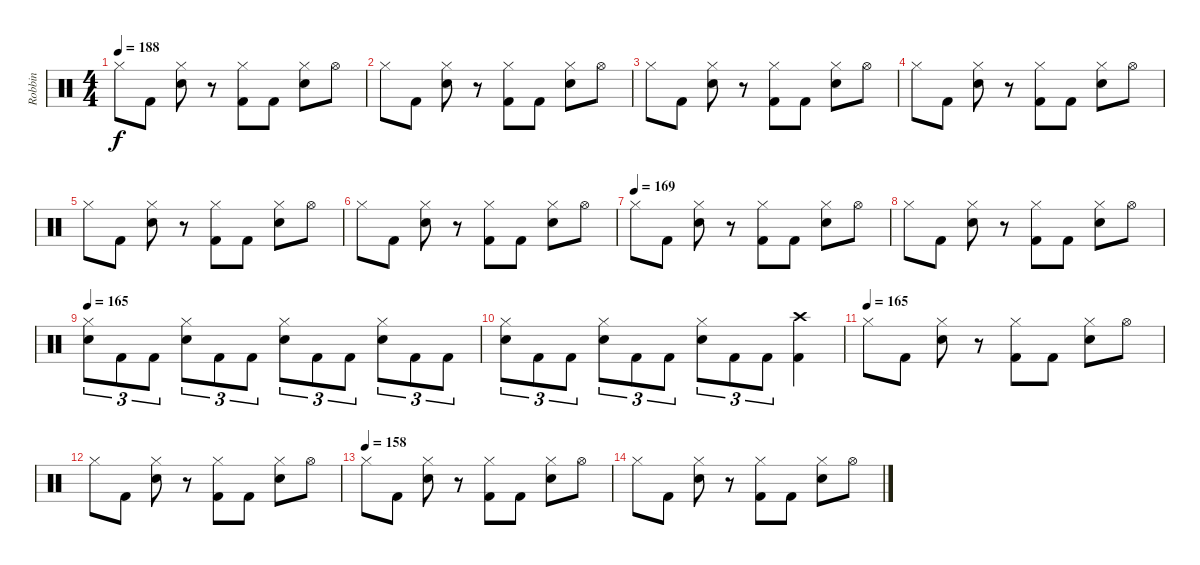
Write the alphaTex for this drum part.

\track ("Robbin" "Robbin") {instrument percussion}
\staff {score}
\articulation defaults
\ts (4 4)
\tempo 188
\clef neutral
\ks c "Hi-Hat (closed)".8{dy f} "Kick (hit) 2".8
("Hi-Hat (closed)" "Snare (hit) 2").8 r.8 ("Hi-Hat (closed)" "Kick (hit) 2").8 "Kick (hit) 2".8 ("Hi-Hat (closed)" "Snare (hit) 2").8 "Hi-Hat (open)".8 |
"Hi-Hat (closed)".8 "Kick (hit) 2".8 ("Hi-Hat (closed)" "Snare (hit) 2").8 r.8 ("Hi-Hat (closed)" "Kick (hit) 2").8 "Kick (hit) 2".8 ("Hi-Hat (closed)" "Snare (hit) 2").8 "Hi-Hat (open)".8 |
"Hi-Hat (closed)".8 "Kick (hit) 2".8 ("Hi-Hat (closed)" "Snare (hit) 2").8 r.8 ("Hi-Hat (closed)" "Kick (hit) 2").8 "Kick (hit) 2".8 ("Hi-Hat (closed)" "Snare (hit) 2").8 "Hi-Hat (open)".8 |
"Hi-Hat (closed)".8 "Kick (hit) 2".8 ("Hi-Hat (closed)" "Snare (hit) 2").8 r.8 ("Hi-Hat (closed)" "Kick (hit) 2").8 "Kick (hit) 2".8 ("Hi-Hat (closed)" "Snare (hit) 2").8 "Hi-Hat (open)".8 |
"Hi-Hat (closed)".8 "Kick (hit) 2".8 ("Hi-Hat (closed)" "Snare (hit) 2").8 r.8 ("Hi-Hat (closed)" "Kick (hit) 2").8 "Kick (hit) 2".8 ("Hi-Hat (closed)" "Snare (hit) 2").8 "Hi-Hat (open)".8 |
"Hi-Hat (closed)".8 "Kick (hit) 2".8 ("Hi-Hat (closed)" "Snare (hit) 2").8 r.8 ("Hi-Hat (closed)" "Kick (hit) 2").8 "Kick (hit) 2".8 ("Hi-Hat (closed)" "Snare (hit) 2").8 "Hi-Hat (open)".8 |
\tempo (169)
"Hi-Hat (closed)".8 "Kick (hit) 2".8 ("Hi-Hat (closed)" "Snare (hit) 2").8 r.8 ("Hi-Hat (closed)" "Kick (hit) 2").8 "Kick (hit) 2".8 ("Hi-Hat (closed)" "Snare (hit) 2").8 "Hi-Hat (open)".8 |
"Hi-Hat (closed)".8 "Kick (hit) 2".8 ("Hi-Hat (closed)" "Snare (hit) 2").8 r.8 ("Hi-Hat (closed)" "Kick (hit) 2").8 "Kick (hit) 2".8 ("Hi-Hat (closed)" "Snare (hit) 2").8 "Hi-Hat (open)".8 |
\tempo 165
("Hi-Hat (closed)" "Electric Snare (hit)").8{tu (3 2)} "Kick (hit) 2".8{tu (3 2)} "Kick (hit) 2".8{tu (3 2)} ("Hi-Hat (closed)" "Electric Snare (hit)").8{tu (3 2)} "Kick (hit) 2".8{tu (3 2)} "Kick (hit) 2".8{tu (3 2)} ("Hi-Hat (closed)" "Electric Snare (hit)").8{tu (3 2)} "Kick (hit) 2".8{tu (3 2)} "Kick (hit) 2".8{tu (3 2)} ("Hi-Hat (closed)" "Electric Snare (hit)").8{tu (3 2)} "Kick (hit) 2".8{tu (3 2)} "Kick (hit) 2".8{tu (3 2)} |
("Hi-Hat (closed)" "Electric Snare (hit)").8{tu (3 2)} "Kick (hit) 2".8{tu (3 2)} "Kick (hit) 2".8{tu (3 2)} ("Hi-Hat (closed)" "Electric Snare (hit)").8{tu (3 2)} "Kick (hit) 2".8{tu (3 2)} "Kick (hit) 2".8{tu (3 2)} ("Hi-Hat (closed)" "Electric Snare (hit)").8{tu (3 2)} "Kick (hit) 2".8{tu (3 2)} "Kick (hit) 2".8{tu (3 2)} ("Crash high (hit)" "Kick (hit) 2").4 |
\tempo (165)
"Hi-Hat (closed)".8 "Kick (hit) 2".8 ("Hi-Hat (closed)" "Snare (hit) 2").8 r.8 ("Hi-Hat (closed)" "Kick (hit) 2").8 "Kick (hit) 2".8 ("Hi-Hat (closed)" "Snare (hit) 2").8 "Hi-Hat (open)".8 |
"Hi-Hat (closed)".8 "Kick (hit) 2".8 ("Hi-Hat (closed)" "Snare (hit) 2").8 r.8 ("Hi-Hat (closed)" "Kick (hit) 2").8 "Kick (hit) 2".8 ("Hi-Hat (closed)" "Snare (hit) 2").8 "Hi-Hat (open)".8 |
\tempo (158)
"Hi-Hat (closed)".8 "Kick (hit) 2".8 ("Hi-Hat (closed)" "Snare (hit) 2").8 r.8 ("Hi-Hat (closed)" "Kick (hit) 2").8 "Kick (hit) 2".8 ("Hi-Hat (closed)" "Snare (hit) 2").8 "Hi-Hat (open)".8 |
"Hi-Hat (closed)".8 "Kick (hit) 2".8 ("Hi-Hat (closed)" "Snare (hit) 2").8 r.8 ("Hi-Hat (closed)" "Kick (hit) 2").8 "Kick (hit) 2".8 ("Hi-Hat (closed)" "Snare (hit) 2").8 "Hi-Hat (open)".8
